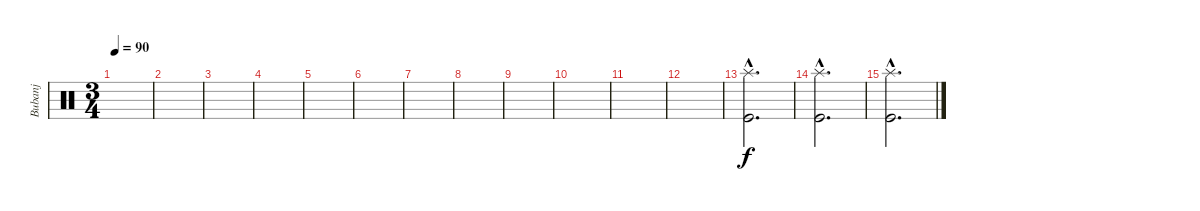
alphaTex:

\track ("Bubanj" "Bubanj") {instrument percussion}
\staff {score}
\articulation defaults
\ts (3 4)
\tempo 90
\clef neutral
\ks c
|
|
|
|
|
|
|
|
|
|
|
|
("Splash (hit)"{hac} "Kick (hit)"{hac}).2{d} |
("Splash (hit)"{hac} "Kick (hit)"{hac}).2{d} |
("Splash (hit)"{hac} "Kick (hit)"{hac}).2{d}
